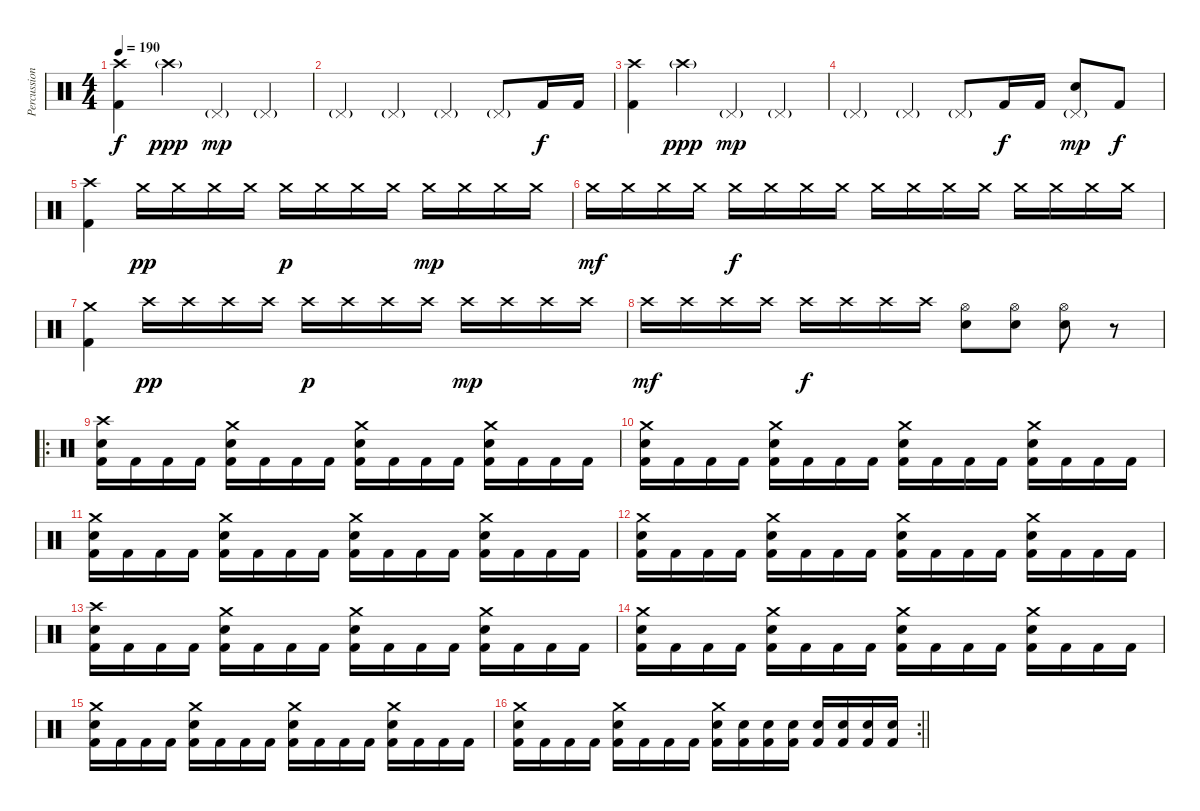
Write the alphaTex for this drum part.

\track ("Percussions" "Percussion") {instrument percussion}
\staff {score}
\articulation defaults
\ts (4 4)
\tempo 190
\clef neutral
\ks c
("Crash high (hit)" "Kick (hit) 2").4{dy f} "Crash high (hit)"{g}.4{dy ppp} "Pedal Hi-Hat (hit)"{g}.4{dy mp} "Pedal Hi-Hat (hit)"{g}.4 |
"Pedal Hi-Hat (hit)"{g}.4 "Pedal Hi-Hat (hit)"{g}.4 "Pedal Hi-Hat (hit)"{g}.4 "Pedal Hi-Hat (hit)"{g}.8 "Kick (hit) 2".16{dy f} "Kick (hit) 2".16 |
("Crash high (hit)" "Kick (hit) 2").4 "Crash high (hit)"{g}.4{dy ppp} "Pedal Hi-Hat (hit)"{g}.4{dy mp} "Pedal Hi-Hat (hit)"{g}.4 |
"Pedal Hi-Hat (hit)"{g}.4 "Pedal Hi-Hat (hit)"{g}.4 "Pedal Hi-Hat (hit)"{g}.8 "Kick (hit) 2".16{dy f} "Kick (hit) 2".16 ("Pedal Hi-Hat (hit)"{g} "Electric Snare (hit)").8{dy mp} "Kick (hit) 2".8{dy f} |
("Crash high (hit)" "Kick (hit) 2").4 "Crash medium (hit)".16{dy pp} "Crash medium (hit)".16 "Crash medium (hit)".16 "Crash medium (hit)".16 "Crash medium (hit)".16{dy p} "Crash medium (hit)".16 "Crash medium (hit)".16 "Crash medium (hit)".16 "Crash medium (hit)".16{dy mp} "Crash medium (hit)".16 "Crash medium (hit)".16 "Crash medium (hit)".16 |
"Crash medium (hit)".16{dy mf} "Crash medium (hit)".16 "Crash medium (hit)".16 "Crash medium (hit)".16 "Crash medium (hit)".16{dy f} "Crash medium (hit)".16 "Crash medium (hit)".16 "Crash medium (hit)".16 "Crash medium (hit)".16 "Crash medium (hit)".16 "Crash medium (hit)".16 "Crash medium (hit)".16 "Crash medium (hit)".16 "Crash medium (hit)".16 "Crash medium (hit)".16 "Crash medium (hit)".16 |
("Crash medium (hit)" "Kick (hit) 2").4 "Crash high (hit)".16{dy pp} "Crash high (hit)".16 "Crash high (hit)".16 "Crash high (hit)".16 "Crash high (hit)".16{dy p} "Crash high (hit)".16 "Crash high (hit)".16 "Crash high (hit)".16 "Crash high (hit)".16{dy mp} "Crash high (hit)".16 "Crash high (hit)".16 "Crash high (hit)".16 |
"Crash high (hit)".16{dy mf} "Crash high (hit)".16 "Crash high (hit)".16 "Crash high (hit)".16 "Crash high (hit)".16{dy f} "Crash high (hit)".16 "Crash high (hit)".16 "Crash high (hit)".16 ("Hi-Hat (open)" "Electric Snare (hit)").8 ("Hi-Hat (open)" "Electric Snare (hit)").8 ("Hi-Hat (open)" "Electric Snare (hit)").8 r.8 |
\ro
("Crash high (hit)" "Electric Snare (hit)" "Kick (hit) 2").16 "Kick (hit) 2".16 "Kick (hit) 2".16 "Kick (hit) 2".16 ("Crash medium (hit)" "Electric Snare (hit)" "Kick (hit) 2").16 "Kick (hit) 2".16 "Kick (hit) 2".16 "Kick (hit) 2".16 ("Crash medium (hit)" "Electric Snare (hit)" "Kick (hit) 2").16 "Kick (hit) 2".16 "Kick (hit) 2".16 "Kick (hit) 2".16 ("Crash medium (hit)" "Electric Snare (hit)" "Kick (hit) 2").16 "Kick (hit) 2".16 "Kick (hit) 2".16 "Kick (hit) 2".16 |
("Crash medium (hit)" "Electric Snare (hit)" "Kick (hit) 2").16 "Kick (hit) 2".16 "Kick (hit) 2".16 "Kick (hit) 2".16 ("Crash medium (hit)" "Electric Snare (hit)" "Kick (hit) 2").16 "Kick (hit) 2".16 "Kick (hit) 2".16 "Kick (hit) 2".16 ("Crash medium (hit)" "Electric Snare (hit)" "Kick (hit) 2").16 "Kick (hit) 2".16 "Kick (hit) 2".16 "Kick (hit) 2".16 ("Crash medium (hit)" "Electric Snare (hit)" "Kick (hit) 2").16 "Kick (hit) 2".16 "Kick (hit) 2".16 "Kick (hit) 2".16 |
("Crash medium (hit)" "Electric Snare (hit)" "Kick (hit) 2").16 "Kick (hit) 2".16 "Kick (hit) 2".16 "Kick (hit) 2".16 ("Crash medium (hit)" "Electric Snare (hit)" "Kick (hit) 2").16 "Kick (hit) 2".16 "Kick (hit) 2".16 "Kick (hit) 2".16 ("Crash medium (hit)" "Electric Snare (hit)" "Kick (hit) 2").16 "Kick (hit) 2".16 "Kick (hit) 2".16 "Kick (hit) 2".16 ("Crash medium (hit)" "Electric Snare (hit)" "Kick (hit) 2").16 "Kick (hit) 2".16 "Kick (hit) 2".16 "Kick (hit) 2".16 |
("Crash medium (hit)" "Electric Snare (hit)" "Kick (hit) 2").16 "Kick (hit) 2".16 "Kick (hit) 2".16 "Kick (hit) 2".16 ("Crash medium (hit)" "Electric Snare (hit)" "Kick (hit) 2").16 "Kick (hit) 2".16 "Kick (hit) 2".16 "Kick (hit) 2".16 ("Crash medium (hit)" "Electric Snare (hit)" "Kick (hit) 2").16 "Kick (hit) 2".16 "Kick (hit) 2".16 "Kick (hit) 2".16 ("Crash medium (hit)" "Electric Snare (hit)" "Kick (hit) 2").16 "Kick (hit) 2".16 "Kick (hit) 2".16 "Kick (hit) 2".16 |
("Crash high (hit)" "Electric Snare (hit)" "Kick (hit) 2").16 "Kick (hit) 2".16 "Kick (hit) 2".16 "Kick (hit) 2".16 ("Crash medium (hit)" "Electric Snare (hit)" "Kick (hit) 2").16 "Kick (hit) 2".16 "Kick (hit) 2".16 "Kick (hit) 2".16 ("Crash medium (hit)" "Electric Snare (hit)" "Kick (hit) 2").16 "Kick (hit) 2".16 "Kick (hit) 2".16 "Kick (hit) 2".16 ("Crash medium (hit)" "Electric Snare (hit)" "Kick (hit) 2").16 "Kick (hit) 2".16 "Kick (hit) 2".16 "Kick (hit) 2".16 |
("Crash medium (hit)" "Electric Snare (hit)" "Kick (hit) 2").16 "Kick (hit) 2".16 "Kick (hit) 2".16 "Kick (hit) 2".16 ("Crash medium (hit)" "Electric Snare (hit)" "Kick (hit) 2").16 "Kick (hit) 2".16 "Kick (hit) 2".16 "Kick (hit) 2".16 ("Crash medium (hit)" "Electric Snare (hit)" "Kick (hit) 2").16 "Kick (hit) 2".16 "Kick (hit) 2".16 "Kick (hit) 2".16 ("Crash medium (hit)" "Electric Snare (hit)" "Kick (hit) 2").16 "Kick (hit) 2".16 "Kick (hit) 2".16 "Kick (hit) 2".16 |
("Crash medium (hit)" "Electric Snare (hit)" "Kick (hit) 2").16 "Kick (hit) 2".16 "Kick (hit) 2".16 "Kick (hit) 2".16 ("Crash medium (hit)" "Electric Snare (hit)" "Kick (hit) 2").16 "Kick (hit) 2".16 "Kick (hit) 2".16 "Kick (hit) 2".16 ("Crash medium (hit)" "Electric Snare (hit)" "Kick (hit) 2").16 "Kick (hit) 2".16 "Kick (hit) 2".16 "Kick (hit) 2".16 ("Crash medium (hit)" "Electric Snare (hit)" "Kick (hit) 2").16 "Kick (hit) 2".16 "Kick (hit) 2".16 "Kick (hit) 2".16 |
\rc 2
\barLineRight lightlight
("Crash medium (hit)" "Electric Snare (hit)" "Kick (hit) 2").16 "Kick (hit) 2".16 "Kick (hit) 2".16 "Kick (hit) 2".16 ("Crash medium (hit)" "Electric Snare (hit)" "Kick (hit) 2").16 "Kick (hit) 2".16 "Kick (hit) 2".16 "Kick (hit) 2".16 ("Crash medium (hit)" "Electric Snare (hit)" "Kick (hit) 2").16 ("Electric Snare (hit)" "Kick (hit) 2").16 ("Electric Snare (hit)" "Kick (hit) 2").16 ("Electric Snare (hit)" "Kick (hit) 2").16 ("Electric Snare (hit)" "Kick (hit) 2").16 ("Electric Snare (hit)" "Kick (hit) 2").16 ("Electric Snare (hit)" "Kick (hit) 2").16 ("Electric Snare (hit)" "Kick (hit) 2").16
